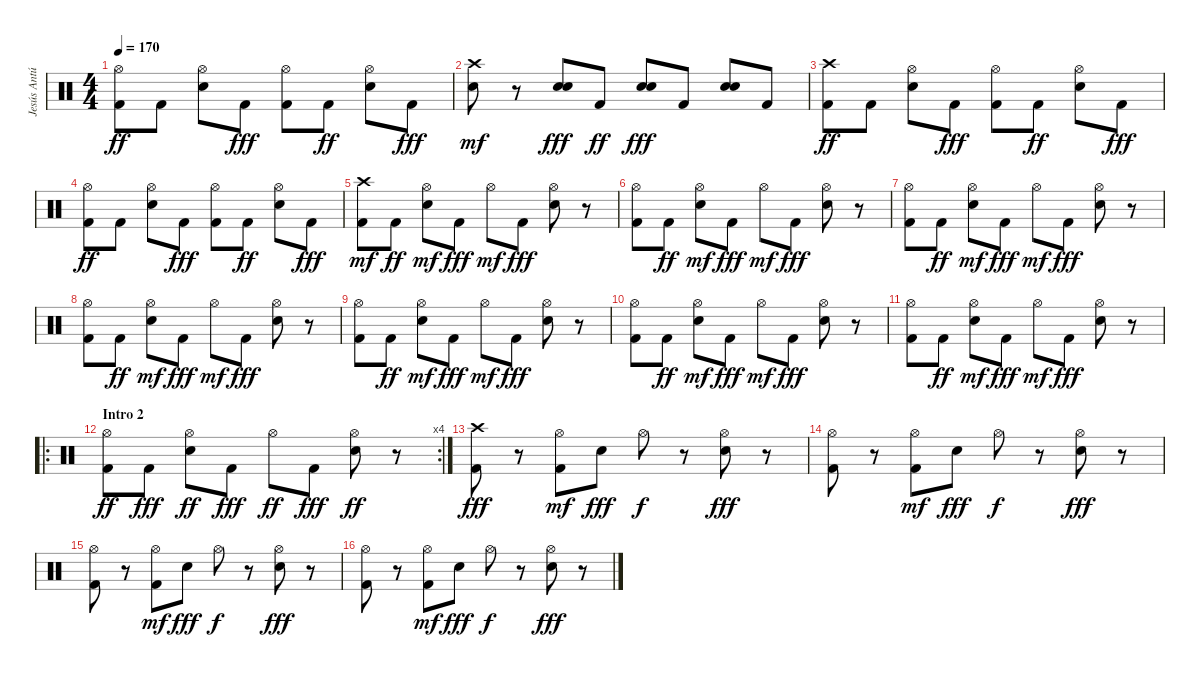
\track ("Jesús Antúnez (Bateria)" "Jesús Antú") {instrument percussion}
\staff {score}
\articulation defaults
\ts (4 4)
\tempo 170
\clef neutral
\ks c
("Kick (hit) 2" "Hi-Hat (open)").8{dy ff} "Kick (hit) 2".8 ("Electric Snare (hit)" "Hi-Hat (open)").8 "Kick (hit) 2".8{dy fff} ("Kick (hit) 2" "Hi-Hat (open)").8 "Kick (hit) 2".8{dy ff} ("Electric Snare (hit)" "Hi-Hat (open)").8 "Kick (hit) 2".8{dy fff} |
("Electric Snare (hit)" "Crash high (hit)").8{dy mf} r.8 ("Electric Snare (hit)" "Electric Snare (hit)").8{dy fff} "Kick (hit) 2".8{dy ff} ("Electric Snare (hit)" "Electric Snare (hit)").8{dy fff} "Kick (hit) 2".8 ("Electric Snare (hit)" "Electric Snare (hit)").8 "Kick (hit) 2".8 |
("Kick (hit) 2" "Crash high (hit)").8{dy ff} "Kick (hit) 2".8 ("Electric Snare (hit)" "Hi-Hat (open)").8 "Kick (hit) 2".8{dy fff} ("Kick (hit) 2" "Hi-Hat (open)").8 "Kick (hit) 2".8{dy ff} ("Electric Snare (hit)" "Hi-Hat (open)").8 "Kick (hit) 2".8{dy fff} |
("Kick (hit) 2" "Hi-Hat (open)").8{dy ff} "Kick (hit) 2".8 ("Electric Snare (hit)" "Hi-Hat (open)").8 "Kick (hit) 2".8{dy fff} ("Kick (hit) 2" "Hi-Hat (open)").8 "Kick (hit) 2".8{dy ff} ("Electric Snare (hit)" "Hi-Hat (open)").8 "Kick (hit) 2".8{dy fff} |
("Kick (hit) 2" "Crash high (hit)").8{dy mf} "Kick (hit) 2".8{dy ff} ("Electric Snare (hit)" "Hi-Hat (open)").8{dy mf} "Kick (hit) 2".8{dy fff} "Hi-Hat (open)".8{dy mf} "Kick (hit) 2".8{dy fff} ("Electric Snare (hit)" "Hi-Hat (open)").8 r.8 |
("Kick (hit) 2" "Hi-Hat (open)").8 "Kick (hit) 2".8{dy ff} ("Electric Snare (hit)" "Hi-Hat (open)").8{dy mf} "Kick (hit) 2".8{dy fff} "Hi-Hat (open)".8{dy mf} "Kick (hit) 2".8{dy fff} ("Electric Snare (hit)" "Hi-Hat (open)").8 r.8 |
("Kick (hit) 2" "Hi-Hat (open)").8 "Kick (hit) 2".8{dy ff} ("Electric Snare (hit)" "Hi-Hat (open)").8{dy mf} "Kick (hit) 2".8{dy fff} "Hi-Hat (open)".8{dy mf} "Kick (hit) 2".8{dy fff} ("Electric Snare (hit)" "Hi-Hat (open)").8 r.8 |
("Kick (hit) 2" "Hi-Hat (open)").8 "Kick (hit) 2".8{dy ff} ("Electric Snare (hit)" "Hi-Hat (open)").8{dy mf} "Kick (hit) 2".8{dy fff} "Hi-Hat (open)".8{dy mf} "Kick (hit) 2".8{dy fff} ("Electric Snare (hit)" "Hi-Hat (open)").8 r.8 |
("Kick (hit) 2" "Hi-Hat (open)").8 "Kick (hit) 2".8{dy ff} ("Electric Snare (hit)" "Hi-Hat (open)").8{dy mf} "Kick (hit) 2".8{dy fff} "Hi-Hat (open)".8{dy mf} "Kick (hit) 2".8{dy fff} ("Electric Snare (hit)" "Hi-Hat (open)").8 r.8 |
("Kick (hit) 2" "Hi-Hat (open)").8 "Kick (hit) 2".8{dy ff} ("Electric Snare (hit)" "Hi-Hat (open)").8{dy mf} "Kick (hit) 2".8{dy fff} "Hi-Hat (open)".8{dy mf} "Kick (hit) 2".8{dy fff} ("Electric Snare (hit)" "Hi-Hat (open)").8 r.8 |
("Kick (hit) 2" "Hi-Hat (open)").8 "Kick (hit) 2".8{dy ff} ("Electric Snare (hit)" "Hi-Hat (open)").8{dy mf} "Kick (hit) 2".8{dy fff} "Hi-Hat (open)".8{dy mf} "Kick (hit) 2".8{dy fff} ("Electric Snare (hit)" "Hi-Hat (open)").8 r.8 |
\ro
\rc 4
\section ("" "Intro 2")
("Kick (hit) 2" "Hi-Hat (open)").8{dy ff} "Kick (hit) 2".8{dy fff} ("Electric Snare (hit)" "Hi-Hat (open)").8{dy ff} "Kick (hit) 2".8{dy fff} "Hi-Hat (open)".8{dy ff} "Kick (hit) 2".8{dy fff} ("Electric Snare (hit)" "Hi-Hat (open)").8{dy ff} r.8 |
("Crash high (hit)" "Kick (hit) 2").8{dy fff} r.8 ("Kick (hit) 2" "Hi-Hat (open)").8{dy mf} "Electric Snare (hit)".8{dy fff} "Hi-Hat (open)".8{dy f} r.8 ("Electric Snare (hit)" "Hi-Hat (open)").8{dy fff} r.8 |
("Hi-Hat (open)" "Kick (hit) 2").8 r.8 ("Kick (hit) 2" "Hi-Hat (open)").8{dy mf} "Electric Snare (hit)".8{dy fff} "Hi-Hat (open)".8{dy f} r.8 ("Electric Snare (hit)" "Hi-Hat (open)").8{dy fff} r.8 |
("Hi-Hat (open)" "Kick (hit) 2").8 r.8 ("Kick (hit) 2" "Hi-Hat (open)").8{dy mf} "Electric Snare (hit)".8{dy fff} "Hi-Hat (open)".8{dy f} r.8 ("Electric Snare (hit)" "Hi-Hat (open)").8{dy fff} r.8 |
("Hi-Hat (open)" "Kick (hit) 2").8 r.8 ("Kick (hit) 2" "Hi-Hat (open)").8{dy mf} "Electric Snare (hit)".8{dy fff} "Hi-Hat (open)".8{dy f} r.8 ("Electric Snare (hit)" "Hi-Hat (open)").8{dy fff} r.8
